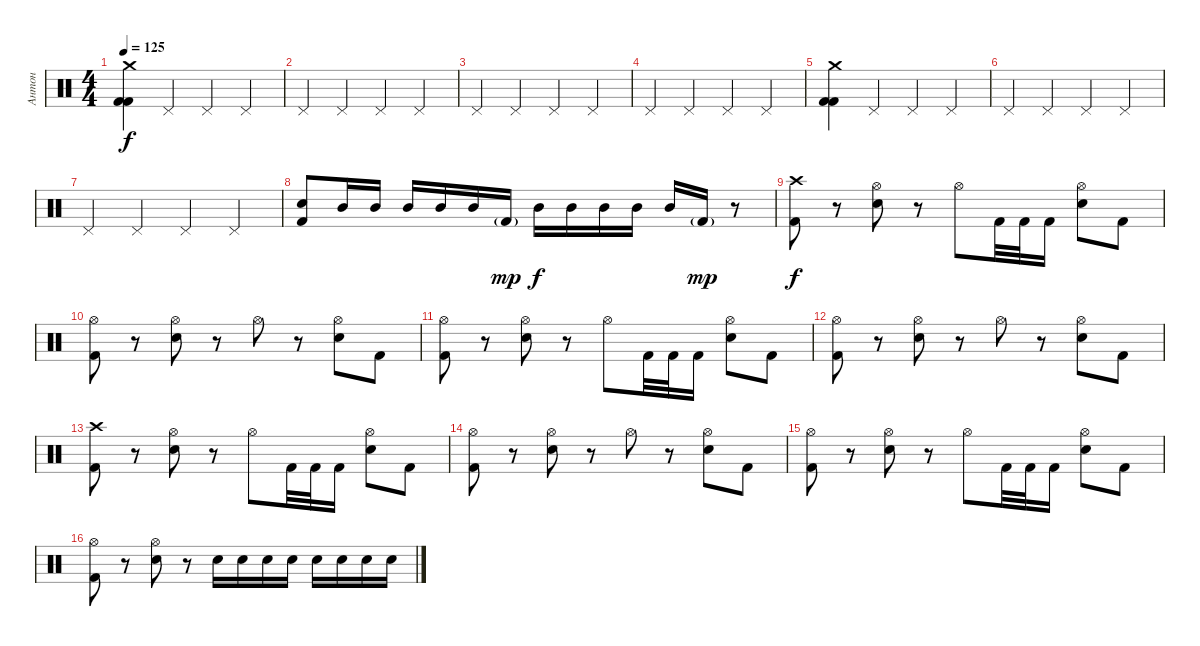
\track ("Антон" "Антон") {instrument percussion}
\staff {score}
\articulation defaults
\ts (4 4)
\tempo 125
\clef neutral
\ks c
("Crash medium (hit)" "Kick (hit) 2" "Kick (hit) 2").4{dy f} "Pedal Hi-Hat (hit)".4 "Pedal Hi-Hat (hit)".4 "Pedal Hi-Hat (hit)".4 |
"Pedal Hi-Hat (hit)".4 "Pedal Hi-Hat (hit)".4 "Pedal Hi-Hat (hit)".4 "Pedal Hi-Hat (hit)".4 |
"Pedal Hi-Hat (hit)".4 "Pedal Hi-Hat (hit)".4 "Pedal Hi-Hat (hit)".4 "Pedal Hi-Hat (hit)".4 |
"Pedal Hi-Hat (hit)".4 "Pedal Hi-Hat (hit)".4 "Pedal Hi-Hat (hit)".4 "Pedal Hi-Hat (hit)".4 |
("Crash medium (hit)" "Kick (hit) 2" "Kick (hit) 2").4 "Pedal Hi-Hat (hit)".4 "Pedal Hi-Hat (hit)".4 "Pedal Hi-Hat (hit)".4 |
"Pedal Hi-Hat (hit)".4 "Pedal Hi-Hat (hit)".4 "Pedal Hi-Hat (hit)".4 "Pedal Hi-Hat (hit)".4 |
"Pedal Hi-Hat (hit)".4 "Pedal Hi-Hat (hit)".4 "Pedal Hi-Hat (hit)".4 "Pedal Hi-Hat (hit)".4 |
("Kick (hit) 2" "Electric Snare (hit)").8 "Mid Tom (hit)".16 "Mid Tom (hit)".16 "Mid Tom (hit)".16 "Mid Tom (hit)".16 "Mid Tom (hit)".16 "Kick (hit) 2"{g}.16{dy mp} "Mid Tom (hit)".16{dy f} "Mid Tom (hit)".16 "Mid Tom (hit)".16 "Mid Tom (hit)".16 "Mid Tom (hit)".16 "Kick (hit) 2"{g}.16{dy mp} r.8 |
("Crash high (hit)" "Kick (hit) 2").8{dy f} r.8 ("Hi-Hat (open)" "Electric Snare (hit)").8 r.8 "Hi-Hat (open)".8 "Kick (hit) 2".32 "Kick (hit) 2".32 "Kick (hit) 2".16 ("Hi-Hat (open)" "Electric Snare (hit)").8 "Kick (hit) 2".8 |
("Hi-Hat (open)" "Kick (hit) 2").8 r.8 ("Hi-Hat (open)" "Electric Snare (hit)").8 r.8 "Hi-Hat (open)".8 r.8 ("Hi-Hat (open)" "Electric Snare (hit)").8 "Kick (hit) 2".8 |
("Hi-Hat (open)" "Kick (hit) 2").8 r.8 ("Hi-Hat (open)" "Electric Snare (hit)").8 r.8 "Hi-Hat (open)".8 "Kick (hit) 2".32 "Kick (hit) 2".32 "Kick (hit) 2".16 ("Hi-Hat (open)" "Electric Snare (hit)").8 "Kick (hit) 2".8 |
("Hi-Hat (open)" "Kick (hit) 2").8 r.8 ("Hi-Hat (open)" "Electric Snare (hit)").8 r.8 "Hi-Hat (open)".8 r.8 ("Hi-Hat (open)" "Electric Snare (hit)").8 "Kick (hit) 2".8 |
("Crash high (hit)" "Kick (hit) 2").8 r.8 ("Hi-Hat (open)" "Electric Snare (hit)").8 r.8 "Hi-Hat (open)".8 "Kick (hit) 2".32 "Kick (hit) 2".32 "Kick (hit) 2".16 ("Hi-Hat (open)" "Electric Snare (hit)").8 "Kick (hit) 2".8 |
("Hi-Hat (open)" "Kick (hit) 2").8 r.8 ("Hi-Hat (open)" "Electric Snare (hit)").8 r.8 "Hi-Hat (open)".8 r.8 ("Hi-Hat (open)" "Electric Snare (hit)").8 "Kick (hit) 2".8 |
("Hi-Hat (open)" "Kick (hit) 2").8 r.8 ("Hi-Hat (open)" "Electric Snare (hit)").8 r.8 "Hi-Hat (open)".8 "Kick (hit) 2".32 "Kick (hit) 2".32 "Kick (hit) 2".16 ("Hi-Hat (open)" "Electric Snare (hit)").8 "Kick (hit) 2".8 |
("Hi-Hat (open)" "Kick (hit) 2").8 r.8 ("Hi-Hat (open)" "Electric Snare (hit)").8 r.8 "Electric Snare (hit)".16 "Electric Snare (hit)".16 "Electric Snare (hit)".16 "Electric Snare (hit)".16 "Electric Snare (hit)".16 "Electric Snare (hit)".16 "Electric Snare (hit)".16 "Electric Snare (hit)".16
